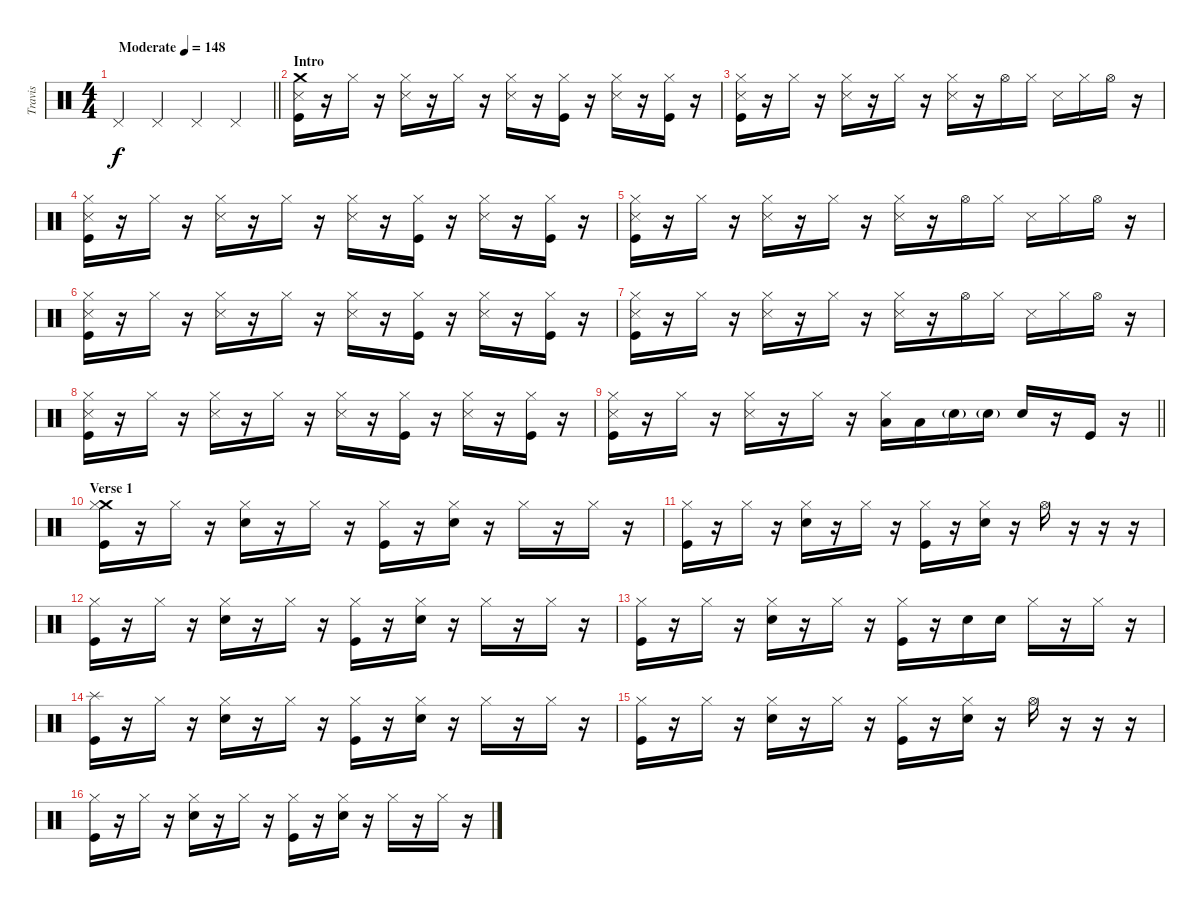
\track ("Travis" "Travis") {instrument percussion}
\staff {score}
\articulation defaults
\ts (4 4)
\tempo (148 "Moderate")
\clef neutral
\barLineRight lightlight
\ks c "Pedal Hi-Hat (hit)".4{dy f} "Pedal Hi-Hat (hit)".4 "Pedal Hi-Hat (hit)".4 "Pedal Hi-Hat (hit)".4
|
\section ("" "Intro")
("Crash medium (hit)" "Snare (side stick) 3" "Kick (hit)").16 r.16 "Hi-Hat (closed)".16 r.16 ("Hi-Hat (closed)" "Snare (side stick) 3").16 r.16 "Hi-Hat (closed)".16 r.16 ("Hi-Hat (closed)" "Snare (side stick) 3").16 r.16 ("Hi-Hat (closed)" "Kick (hit)").16 r.16 ("Hi-Hat (closed)" "Snare (side stick) 3").16 r.16 ("Hi-Hat (closed)" "Kick (hit)").16 r.16 |
("Hi-Hat (closed)" "Snare (side stick) 3" "Kick (hit)").16 r.16 "Hi-Hat (closed)".16 r.16 ("Hi-Hat (closed)" "Snare (side stick) 3").16 r.16 "Hi-Hat (closed)".16 r.16 ("Hi-Hat (closed)" "Snare (side stick) 3").16 r.16 "Hi-Hat (open)".16 "Hi-Hat (closed)".16 "Snare (side stick) 3".16 "Hi-Hat (closed)".16 "Hi-Hat (open)".16 r.16 |
("Hi-Hat (closed)" "Snare (side stick) 3" "Kick (hit)").16 r.16 "Hi-Hat (closed)".16 r.16 ("Hi-Hat (closed)" "Snare (side stick) 3").16 r.16 "Hi-Hat (closed)".16 r.16 ("Hi-Hat (closed)" "Snare (side stick) 3").16 r.16 ("Hi-Hat (closed)" "Kick (hit)").16 r.16 ("Hi-Hat (closed)" "Snare (side stick) 3").16 r.16 ("Hi-Hat (closed)" "Kick (hit)").16 r.16 |
("Hi-Hat (closed)" "Snare (side stick) 3" "Kick (hit)").16 r.16 "Hi-Hat (closed)".16 r.16 ("Hi-Hat (closed)" "Snare (side stick) 3").16 r.16 "Hi-Hat (closed)".16 r.16 ("Hi-Hat (closed)" "Snare (side stick) 3").16 r.16 "Hi-Hat (open)".16 "Hi-Hat (closed)".16 "Snare (side stick) 3".16 "Hi-Hat (closed)".16 "Hi-Hat (open)".16 r.16 |
("Hi-Hat (closed)" "Snare (side stick) 3" "Kick (hit)").16 r.16 "Hi-Hat (closed)".16 r.16 ("Hi-Hat (closed)" "Snare (side stick) 3").16 r.16 "Hi-Hat (closed)".16 r.16 ("Hi-Hat (closed)" "Snare (side stick) 3").16 r.16 ("Hi-Hat (closed)" "Kick (hit)").16 r.16 ("Hi-Hat (closed)" "Snare (side stick) 3").16 r.16 ("Hi-Hat (closed)" "Kick (hit)").16 r.16 |
("Hi-Hat (closed)" "Snare (side stick) 3" "Kick (hit)").16 r.16 "Hi-Hat (closed)".16 r.16 ("Hi-Hat (closed)" "Snare (side stick) 3").16 r.16 "Hi-Hat (closed)".16 r.16 ("Hi-Hat (closed)" "Snare (side stick) 3").16 r.16 "Hi-Hat (open)".16 "Hi-Hat (closed)".16 "Snare (side stick) 3".16 "Hi-Hat (closed)".16 "Hi-Hat (open)".16 r.16 |
("Hi-Hat (closed)" "Snare (side stick) 3" "Kick (hit)").16 r.16 "Hi-Hat (closed)".16 r.16 ("Hi-Hat (closed)" "Snare (side stick) 3").16 r.16 "Hi-Hat (closed)".16 r.16 ("Hi-Hat (closed)" "Snare (side stick) 3").16 r.16 ("Hi-Hat (closed)" "Kick (hit)").16 r.16 ("Hi-Hat (closed)" "Snare (side stick) 3").16 r.16 ("Hi-Hat (closed)" "Kick (hit)").16 r.16 |
\barLineRight lightlight
("Hi-Hat (closed)" "Snare (side stick) 3" "Kick (hit)").16 r.16 "Hi-Hat (closed)".16 r.16 ("Hi-Hat (closed)" "Snare (side stick) 3").16 r.16 "Hi-Hat (closed)".16 r.16 ("Hi-Hat (closed)" "Low Floor Tom (hit)").16 "Low Floor Tom (hit)".16 "Snare (hit) 2"{g}.16 "Snare (hit) 2"{g}.16 "Snare (hit) 2".16 r.16 "Kick (hit)".16 r.16 |
\section ("" "Verse 1")
("Crash medium (hit)" "Hi-Hat (closed)" "Kick (hit)").16 r.16 "Hi-Hat (closed)".16 r.16 ("Hi-Hat (closed)" "Snare (hit) 2").16 r.16 "Hi-Hat (closed)".16 r.16 ("Hi-Hat (closed)" "Kick (hit)").16 r.16 ("Hi-Hat (closed)" "Snare (hit) 2").16 r.16 "Hi-Hat (closed)".16 r.16 "Hi-Hat (closed)".16 r.16 |
("Hi-Hat (closed)" "Kick (hit)").16 r.16 "Hi-Hat (closed)".16 r.16 ("Hi-Hat (closed)" "Snare (hit) 2").16 r.16 "Hi-Hat (closed)".16 r.16 ("Hi-Hat (closed)" "Kick (hit)").16 r.16 ("Hi-Hat (closed)" "Snare (hit) 2").16 r.16 "Hi-Hat (open)".16 r.16 r.16 r.16 |
("Hi-Hat (closed)" "Kick (hit)").16 r.16 "Hi-Hat (closed)".16 r.16 ("Hi-Hat (closed)" "Snare (hit) 2").16 r.16 "Hi-Hat (closed)".16 r.16 ("Hi-Hat (closed)" "Kick (hit)").16 r.16 ("Hi-Hat (closed)" "Snare (hit) 2").16 r.16 "Hi-Hat (closed)".16 r.16 "Hi-Hat (closed)".16 r.16 |
("Hi-Hat (closed)" "Kick (hit)").16 r.16 "Hi-Hat (closed)".16 r.16 ("Hi-Hat (closed)" "Snare (hit) 2").16 r.16 "Hi-Hat (closed)".16 r.16 ("Hi-Hat (closed)" "Kick (hit)").16 r.16 "Snare (hit) 2".16 "Snare (hit) 2".16 "Hi-Hat (closed)".16 r.16 "Hi-Hat (closed)".16 r.16 |
("Splash (hit)" "Kick (hit)").16 r.16 "Hi-Hat (closed)".16 r.16 ("Hi-Hat (closed)" "Snare (hit) 2").16 r.16 "Hi-Hat (closed)".16 r.16 ("Hi-Hat (closed)" "Kick (hit)").16 r.16 ("Hi-Hat (closed)" "Snare (hit) 2").16 r.16 "Hi-Hat (closed)".16 r.16 "Hi-Hat (closed)".16 r.16 |
("Hi-Hat (closed)" "Kick (hit)").16 r.16 "Hi-Hat (closed)".16 r.16 ("Hi-Hat (closed)" "Snare (hit) 2").16 r.16 "Hi-Hat (closed)".16 r.16 ("Hi-Hat (closed)" "Kick (hit)").16 r.16 ("Hi-Hat (closed)" "Snare (hit) 2").16 r.16 "Hi-Hat (open)".16 r.16 r.16 r.16 |
("Hi-Hat (closed)" "Kick (hit)").16 r.16 "Hi-Hat (closed)".16 r.16 ("Hi-Hat (closed)" "Snare (hit) 2").16 r.16 "Hi-Hat (closed)".16 r.16 ("Hi-Hat (closed)" "Kick (hit)").16 r.16 ("Hi-Hat (closed)" "Snare (hit) 2").16 r.16 "Hi-Hat (closed)".16 r.16 "Hi-Hat (closed)".16 r.16
